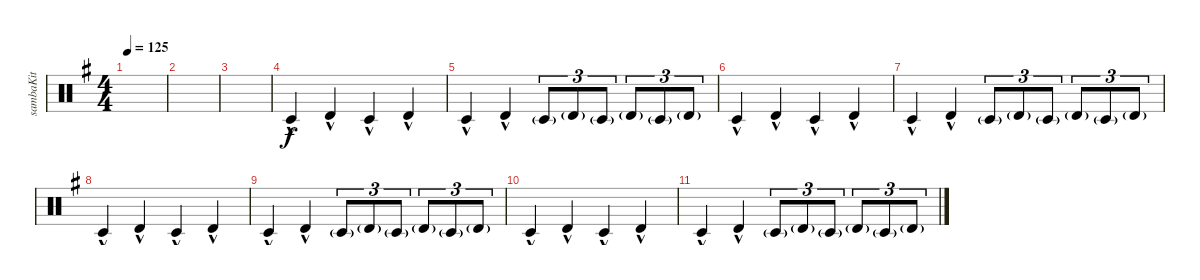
\defaultSystemsLayout 4
\bracketExtendMode groupsimilarinstruments
\otherSystemsTrackNameOrientation horizontal
\track ("Kit-Samba" "sambaKit") {instrument percussion}
\staff {score}
\articulation defaults
\ts (4 4)
\tempo 125
\clef neutral
\scale
0.333333
\ks g
|
\scale
0.333333 |
\scale
0.333333 |
\scale
0.333333 "Timbale low (hit)"{hac acc forcenatural}.4{beam Up} "Timbale high (hit)"{hac acc forcenatural}.4{beam Up} "Timbale low (hit)"{hac acc forcenatural}.4{beam Up} "Timbale high (hit)"{hac acc forcenatural}.4{beam Up} |
\scale
0.333333 "Timbale low (hit)"{hac acc forcenatural}.4{beam Up} "Timbale high (hit)"{hac acc forcenatural}.4{beam Up} "Timbale low (hit)"{g acc forcenatural}.8{tu (3 2) beam Up} "Timbale high (hit)"{g acc forcenatural}.8{tu (3 2) beam Up} "Timbale low (hit)"{g acc forcenatural}.8{tu (3 2) beam Up} "Timbale high (hit)"{g acc forcenatural}.8{tu (3 2) beam Up} "Timbale low (hit)"{g acc forcenatural}.8{tu (3 2) beam Up} "Timbale high (hit)"{g acc forcenatural}.8{tu (3 2) beam Up} |
\scale
0.333333 "Timbale low (hit)"{hac acc forcenatural}.4{beam Up} "Timbale high (hit)"{hac acc forcenatural}.4{beam Up} "Timbale low (hit)"{hac acc forcenatural}.4{beam Up} "Timbale high (hit)"{hac acc forcenatural}.4{beam Up} |
\scale
0.333333 "Timbale low (hit)"{hac acc forcenatural}.4{beam Up} "Timbale high (hit)"{hac acc forcenatural}.4{beam Up} "Timbale low (hit)"{g acc forcenatural}.8{tu (3 2) beam Up} "Timbale high (hit)"{g acc forcenatural}.8{tu (3 2) beam Up} "Timbale low (hit)"{g acc forcenatural}.8{tu (3 2) beam Up} "Timbale high (hit)"{g acc forcenatural}.8{tu (3 2) beam Up} "Timbale low (hit)"{g acc forcenatural}.8{tu (3 2) beam Up} "Timbale high (hit)"{g acc forcenatural}.8{tu (3 2) beam Up} |
\scale
0.333333 "Timbale low (hit)"{hac acc forcenatural}.4{beam Up} "Timbale high (hit)"{hac acc forcenatural}.4{beam Up} "Timbale low (hit)"{hac acc forcenatural}.4{beam Up} "Timbale high (hit)"{hac acc forcenatural}.4{beam Up} |
\scale
0.333333 "Timbale low (hit)"{hac acc forcenatural}.4{beam Up} "Timbale high (hit)"{hac acc forcenatural}.4{beam Up} "Timbale low (hit)"{g acc forcenatural}.8{tu (3 2) beam Up} "Timbale high (hit)"{g acc forcenatural}.8{tu (3 2) beam Up} "Timbale low (hit)"{g acc forcenatural}.8{tu (3 2) beam Up} "Timbale high (hit)"{g acc forcenatural}.8{tu (3 2) beam Up} "Timbale low (hit)"{g acc forcenatural}.8{tu (3 2) beam Up} "Timbale high (hit)"{g acc forcenatural}.8{tu (3 2) beam Up} |
\scale
0.333333 "Timbale low (hit)"{hac acc forcenatural}.4{beam Up} "Timbale high (hit)"{hac acc forcenatural}.4{beam Up} "Timbale low (hit)"{hac acc forcenatural}.4{beam Up} "Timbale high (hit)"{hac acc forcenatural}.4{beam Up} |
\scale
0.333333 "Timbale low (hit)"{hac acc forcenatural}.4{beam Up} "Timbale high (hit)"{hac acc forcenatural}.4{beam Up} "Timbale low (hit)"{g acc forcenatural}.8{tu (3 2) beam Up} "Timbale high (hit)"{g acc forcenatural}.8{tu (3 2) beam Up} "Timbale low (hit)"{g acc forcenatural}.8{tu (3 2) beam Up} "Timbale high (hit)"{g acc forcenatural}.8{tu (3 2) beam Up} "Timbale low (hit)"{g acc forcenatural}.8{tu (3 2) beam Up} "Timbale high (hit)"{g acc forcenatural}.8{tu (3 2) beam Up} |
\scale
0.333333 |
\scale
0.333333 |
\scale
0.333333 |
\scale
0.333333 |
\scale
0.333333
